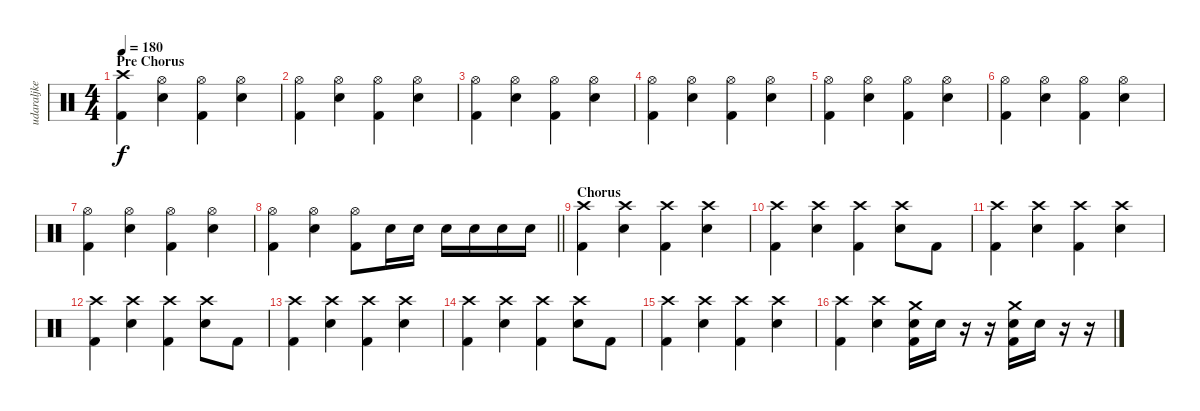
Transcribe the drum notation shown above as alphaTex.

\track ("udaraljke" "udaraljke") {instrument percussion}
\staff {score}
\articulation defaults
\ts (4 4)
\section ("" "Pre Chorus")
\tempo 180
\clef neutral
\ks c
("Crash high (hit)" "Kick (hit) 2").4{dy f} ("Hi-Hat (open)" "Snare (hit) 2").4 ("Hi-Hat (open)" "Kick (hit) 2").4 ("Hi-Hat (open)" "Snare (hit) 2").4 |
("Hi-Hat (open)" "Kick (hit) 2").4 ("Hi-Hat (open)" "Snare (hit) 2").4 ("Hi-Hat (open)" "Kick (hit) 2").4 ("Hi-Hat (open)" "Snare (hit) 2").4 |
("Hi-Hat (open)" "Kick (hit) 2").4 ("Hi-Hat (open)" "Snare (hit) 2").4 ("Hi-Hat (open)" "Kick (hit) 2").4 ("Hi-Hat (open)" "Snare (hit) 2").4 |
("Hi-Hat (open)" "Kick (hit) 2").4 ("Hi-Hat (open)" "Snare (hit) 2").4 ("Hi-Hat (open)" "Kick (hit) 2").4 ("Hi-Hat (open)" "Snare (hit) 2").4 |
("Hi-Hat (open)" "Kick (hit) 2").4 ("Hi-Hat (open)" "Snare (hit) 2").4 ("Hi-Hat (open)" "Kick (hit) 2").4 ("Hi-Hat (open)" "Snare (hit) 2").4 |
("Hi-Hat (open)" "Kick (hit) 2").4 ("Hi-Hat (open)" "Snare (hit) 2").4 ("Hi-Hat (open)" "Kick (hit) 2").4 ("Hi-Hat (open)" "Snare (hit) 2").4 |
("Hi-Hat (open)" "Kick (hit) 2").4 ("Hi-Hat (open)" "Snare (hit) 2").4 ("Hi-Hat (open)" "Kick (hit) 2").4 ("Hi-Hat (open)" "Snare (hit) 2").4 |
\barLineRight lightlight
("Hi-Hat (open)" "Kick (hit) 2").4 ("Hi-Hat (open)" "Snare (hit) 2").4 ("Hi-Hat (open)" "Kick (hit) 2").8 "Snare (hit) 2".16 "Snare (hit) 2".16 "Snare (hit) 2".16 "Snare (hit) 2".16 "Snare (hit) 2".16 "Snare (hit) 2".16 |
\section ("" "Chorus")
("Crash high (hit)" "Kick (hit) 2").4 ("Crash high (hit)" "Snare (hit) 2").4 ("Crash high (hit)" "Kick (hit) 2").4 ("Crash high (hit)" "Snare (hit) 2").4 |
("Crash high (hit)" "Kick (hit) 2").4 ("Crash high (hit)" "Snare (hit) 2").4 ("Crash high (hit)" "Kick (hit) 2").4 ("Crash high (hit)" "Snare (hit) 2").8 "Kick (hit) 2".8 |
("Crash high (hit)" "Kick (hit) 2").4 ("Crash high (hit)" "Snare (hit) 2").4 ("Crash high (hit)" "Kick (hit) 2").4 ("Crash high (hit)" "Snare (hit) 2").4 |
("Crash high (hit)" "Kick (hit) 2").4 ("Crash high (hit)" "Snare (hit) 2").4 ("Crash high (hit)" "Kick (hit) 2").4 ("Crash high (hit)" "Snare (hit) 2").8 "Kick (hit) 2".8 |
("Crash high (hit)" "Kick (hit) 2").4 ("Crash high (hit)" "Snare (hit) 2").4 ("Crash high (hit)" "Kick (hit) 2").4 ("Crash high (hit)" "Snare (hit) 2").4 |
("Crash high (hit)" "Kick (hit) 2").4 ("Crash high (hit)" "Snare (hit) 2").4 ("Crash high (hit)" "Kick (hit) 2").4 ("Crash high (hit)" "Snare (hit) 2").8 "Kick (hit) 2".8 |
("Crash high (hit)" "Kick (hit) 2").4 ("Crash high (hit)" "Snare (hit) 2").4 ("Crash high (hit)" "Kick (hit) 2").4 ("Crash high (hit)" "Snare (hit) 2").4 |
("Crash high (hit)" "Kick (hit) 2").4 ("Crash high (hit)" "Snare (hit) 2").4 ("Crash medium (hit)" "Snare (hit) 2" "Kick (hit) 2").16 "Snare (hit) 2".16 r.16 r.16 ("Crash medium (hit)" "Snare (hit) 2" "Kick (hit) 2").16 "Snare (hit) 2".16 r.16 r.16
